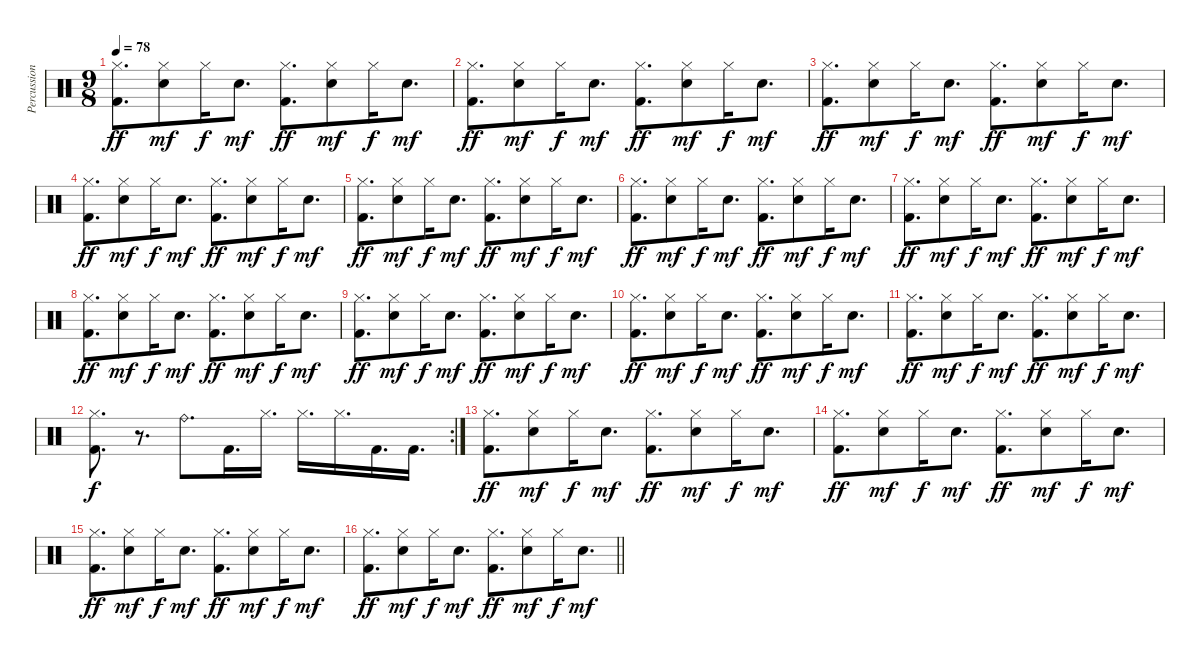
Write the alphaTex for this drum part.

\track ("Percussion" "Percussion") {instrument percussion}
\staff {score}
\articulation defaults
\ts (9 8)
\tempo 78
\clef neutral
\ks c
("Hi-Hat (closed)" "Kick (hit) 2").8{d dy ff} ("Hi-Hat (closed)" "Electric Snare (hit)").8{dy mf} "Hi-Hat (closed)".16{dy f beam merge} "Electric Snare (hit)".8{d dy mf beam split} ("Hi-Hat (closed)" "Kick (hit) 2").8{d dy ff beam merge} ("Hi-Hat (closed)" "Electric Snare (hit)").8{dy mf} "Hi-Hat (closed)".16{dy f} "Electric Snare (hit)".8{d dy mf} |
("Hi-Hat (closed)" "Kick (hit) 2").8{d dy ff} ("Hi-Hat (closed)" "Electric Snare (hit)").8{dy mf} "Hi-Hat (closed)".16{dy f beam merge} "Electric Snare (hit)".8{d dy mf beam split} ("Hi-Hat (closed)" "Kick (hit) 2").8{d dy ff beam merge} ("Hi-Hat (closed)" "Electric Snare (hit)").8{dy mf} "Hi-Hat (closed)".16{dy f} "Electric Snare (hit)".8{d dy mf} |
("Hi-Hat (closed)" "Kick (hit) 2").8{d dy ff} ("Hi-Hat (closed)" "Electric Snare (hit)").8{dy mf} "Hi-Hat (closed)".16{dy f beam merge} "Electric Snare (hit)".8{d dy mf beam split} ("Hi-Hat (closed)" "Kick (hit) 2").8{d dy ff beam merge} ("Hi-Hat (closed)" "Electric Snare (hit)").8{dy mf} "Hi-Hat (closed)".16{dy f} "Electric Snare (hit)".8{d dy mf} |
("Hi-Hat (closed)" "Kick (hit) 2").8{d dy ff} ("Hi-Hat (closed)" "Electric Snare (hit)").8{dy mf} "Hi-Hat (closed)".16{dy f beam merge} "Electric Snare (hit)".8{d dy mf beam split} ("Hi-Hat (closed)" "Kick (hit) 2").8{d dy ff beam merge} ("Hi-Hat (closed)" "Electric Snare (hit)").8{dy mf} "Hi-Hat (closed)".16{dy f} "Electric Snare (hit)".8{d dy mf} |
("Hi-Hat (closed)" "Kick (hit) 2").8{d dy ff} ("Hi-Hat (closed)" "Electric Snare (hit)").8{dy mf} "Hi-Hat (closed)".16{dy f beam merge} "Electric Snare (hit)".8{d dy mf beam split} ("Hi-Hat (closed)" "Kick (hit) 2").8{d dy ff beam merge} ("Hi-Hat (closed)" "Electric Snare (hit)").8{dy mf} "Hi-Hat (closed)".16{dy f} "Electric Snare (hit)".8{d dy mf} |
("Hi-Hat (closed)" "Kick (hit) 2").8{d dy ff} ("Hi-Hat (closed)" "Electric Snare (hit)").8{dy mf} "Hi-Hat (closed)".16{dy f beam merge} "Electric Snare (hit)".8{d dy mf beam split} ("Hi-Hat (closed)" "Kick (hit) 2").8{d dy ff beam merge} ("Hi-Hat (closed)" "Electric Snare (hit)").8{dy mf} "Hi-Hat (closed)".16{dy f} "Electric Snare (hit)".8{d dy mf} |
("Hi-Hat (closed)" "Kick (hit) 2").8{d dy ff} ("Hi-Hat (closed)" "Electric Snare (hit)").8{dy mf} "Hi-Hat (closed)".16{dy f beam merge} "Electric Snare (hit)".8{d dy mf beam split} ("Hi-Hat (closed)" "Kick (hit) 2").8{d dy ff beam merge} ("Hi-Hat (closed)" "Electric Snare (hit)").8{dy mf} "Hi-Hat (closed)".16{dy f} "Electric Snare (hit)".8{d dy mf} |
("Hi-Hat (closed)" "Kick (hit) 2").8{d dy ff} ("Hi-Hat (closed)" "Electric Snare (hit)").8{dy mf} "Hi-Hat (closed)".16{dy f beam merge} "Electric Snare (hit)".8{d dy mf beam split} ("Hi-Hat (closed)" "Kick (hit) 2").8{d dy ff beam merge} ("Hi-Hat (closed)" "Electric Snare (hit)").8{dy mf} "Hi-Hat (closed)".16{dy f} "Electric Snare (hit)".8{d dy mf} |
("Hi-Hat (closed)" "Kick (hit) 2").8{d dy ff} ("Hi-Hat (closed)" "Electric Snare (hit)").8{dy mf} "Hi-Hat (closed)".16{dy f beam merge} "Electric Snare (hit)".8{d dy mf beam split} ("Hi-Hat (closed)" "Kick (hit) 2").8{d dy ff beam merge} ("Hi-Hat (closed)" "Electric Snare (hit)").8{dy mf} "Hi-Hat (closed)".16{dy f} "Electric Snare (hit)".8{d dy mf} |
("Hi-Hat (closed)" "Kick (hit) 2").8{d dy ff} ("Hi-Hat (closed)" "Electric Snare (hit)").8{dy mf} "Hi-Hat (closed)".16{dy f beam merge} "Electric Snare (hit)".8{d dy mf beam split} ("Hi-Hat (closed)" "Kick (hit) 2").8{d dy ff beam merge} ("Hi-Hat (closed)" "Electric Snare (hit)").8{dy mf} "Hi-Hat (closed)".16{dy f} "Electric Snare (hit)".8{d dy mf} |
("Hi-Hat (closed)" "Kick (hit) 2").8{d dy ff} ("Hi-Hat (closed)" "Electric Snare (hit)").8{dy mf} "Hi-Hat (closed)".16{dy f beam merge} "Electric Snare (hit)".8{d dy mf beam split} ("Hi-Hat (closed)" "Kick (hit) 2").8{d dy ff beam merge} ("Hi-Hat (closed)" "Electric Snare (hit)").8{dy mf} "Hi-Hat (closed)".16{dy f} "Electric Snare (hit)".8{d dy mf} |
\rc 2
("Hi-Hat (closed)" "Kick (hit) 2").8{d dy f} r.8{d} "Ride (bell)".8{d} "Kick (hit) 2".16{d} "Hi-Hat (closed)".16{d} "Hi-Hat (closed)".16{d} "Hi-Hat (closed)".16{d} "Kick (hit) 2".16{d} "Kick (hit) 2".16{d} |
("Hi-Hat (closed)" "Kick (hit) 2").8{d dy ff} ("Hi-Hat (closed)" "Electric Snare (hit)").8{dy mf} "Hi-Hat (closed)".16{dy f beam merge} "Electric Snare (hit)".8{d dy mf beam split} ("Hi-Hat (closed)" "Kick (hit) 2").8{d dy ff beam merge} ("Hi-Hat (closed)" "Electric Snare (hit)").8{dy mf} "Hi-Hat (closed)".16{dy f} "Electric Snare (hit)".8{d dy mf} |
("Hi-Hat (closed)" "Kick (hit) 2").8{d dy ff} ("Hi-Hat (closed)" "Electric Snare (hit)").8{dy mf} "Hi-Hat (closed)".16{dy f beam merge} "Electric Snare (hit)".8{d dy mf beam split} ("Hi-Hat (closed)" "Kick (hit) 2").8{d dy ff beam merge} ("Hi-Hat (closed)" "Electric Snare (hit)").8{dy mf} "Hi-Hat (closed)".16{dy f} "Electric Snare (hit)".8{d dy mf} |
("Hi-Hat (closed)" "Kick (hit) 2").8{d dy ff} ("Hi-Hat (closed)" "Electric Snare (hit)").8{dy mf} "Hi-Hat (closed)".16{dy f beam merge} "Electric Snare (hit)".8{d dy mf beam split} ("Hi-Hat (closed)" "Kick (hit) 2").8{d dy ff beam merge} ("Hi-Hat (closed)" "Electric Snare (hit)").8{dy mf} "Hi-Hat (closed)".16{dy f} "Electric Snare (hit)".8{d dy mf} |
\barLineRight lightlight
("Hi-Hat (closed)" "Kick (hit) 2").8{d dy ff} ("Hi-Hat (closed)" "Electric Snare (hit)").8{dy mf} "Hi-Hat (closed)".16{dy f beam merge} "Electric Snare (hit)".8{d dy mf beam split} ("Hi-Hat (closed)" "Kick (hit) 2").8{d dy ff beam merge} ("Hi-Hat (closed)" "Electric Snare (hit)").8{dy mf} "Hi-Hat (closed)".16{dy f} "Electric Snare (hit)".8{d dy mf}
